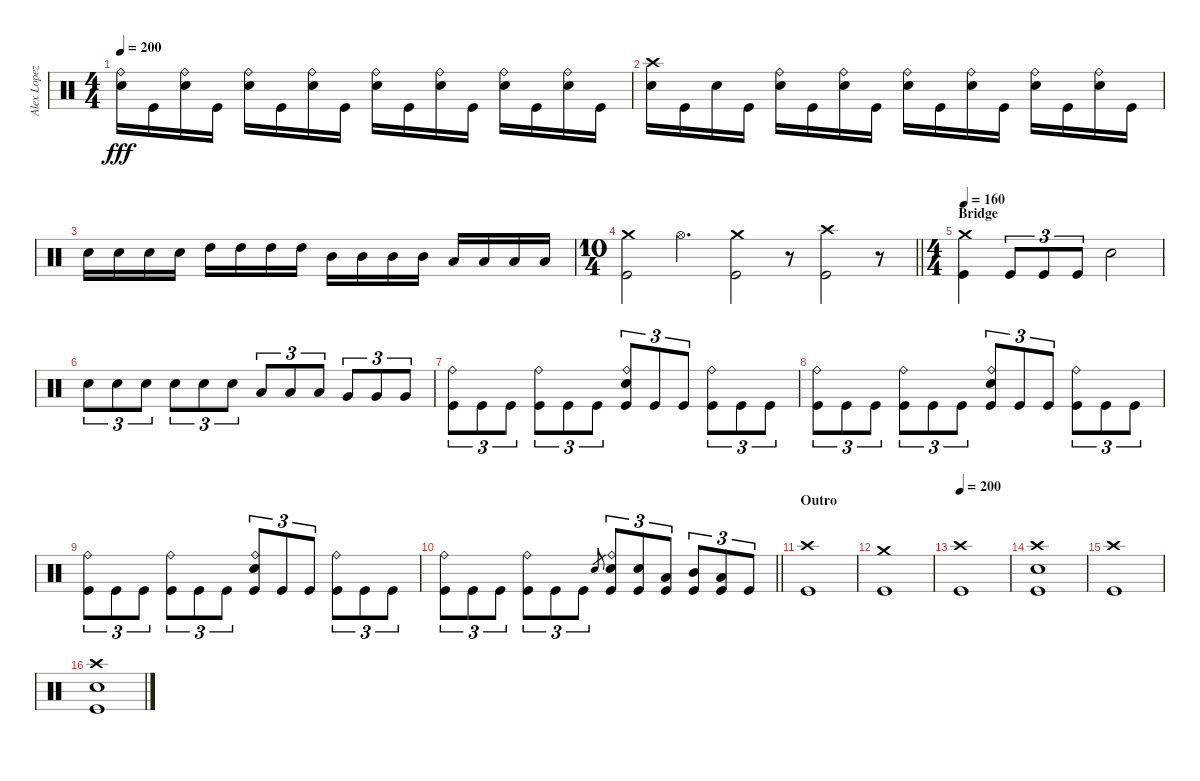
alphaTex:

\track ("Alex Lopez" "Alex Lopez") {instrument percussion}
\staff {score}
\articulation defaults
\ts (4 4)
\tempo 200
\clef neutral
\ks c
("Snare (hit) 2" "Ride (bell)").16{dy fff} "Kick (hit)".16 ("Snare (hit) 2" "Ride (bell)").16 "Kick (hit)".16 ("Snare (hit) 2" "Ride (bell)").16 "Kick (hit)".16 ("Snare (hit) 2" "Ride (bell)").16 "Kick (hit)".16 ("Snare (hit) 2" "Ride (bell)").16 "Kick (hit)".16 ("Snare (hit) 2" "Ride (bell)").16 "Kick (hit)".16 ("Snare (hit) 2" "Ride (bell)").16 "Kick (hit)".16 ("Snare (hit) 2" "Ride (bell)").16 "Kick (hit)".16 |
("Snare (hit) 2" "Crash high (hit)").16 "Kick (hit)".16 "Snare (hit) 2".16 "Kick (hit)".16 ("Snare (hit) 2" "Ride (bell)").16 "Kick (hit)".16 ("Snare (hit) 2" "Ride (bell)").16 "Kick (hit)".16 ("Snare (hit) 2" "Ride (bell)").16 "Kick (hit)".16 ("Snare (hit) 2" "Ride (bell)").16 "Kick (hit)".16 ("Snare (hit) 2" "Ride (bell)").16 "Kick (hit)".16 ("Snare (hit) 2" "Ride (bell)").16 "Kick (hit)".16 |
"Snare (hit) 2".16 "Snare (hit) 2".16 "Snare (hit) 2".16 "Snare (hit) 2".16 "High Tom (hit)".16 "High Tom (hit)".16 "High Tom (hit)".16 "High Tom (hit)".16 "Mid Tom (hit)".16 "Mid Tom (hit)".16 "Mid Tom (hit)".16 "Mid Tom (hit)".16 "Low Tom (hit)".16 "Low Tom (hit)".16 "Low Tom (hit)".16 "Low Tom (hit)".16 |
\ts (10 4)
\barLineRight lightlight
("Crash medium (hit)" "Kick (hit)").2 "Hi-Hat (open)".2{d} ("Crash medium (hit)" "Kick (hit)").2 r.8 ("Crash high (hit)" "Kick (hit)").2 r.8 |
\ts (4 4)
\section ("" "Bridge")
\tempo 160
("Crash medium (hit)" "Kick (hit)").4 "Kick (hit)".8{tu (3 2)} "Kick (hit)".8{tu (3 2)} "Kick (hit)".8{tu (3 2)} "Snare (hit) 2".2 |
"Snare (hit) 2".8{tu (3 2)} "Snare (hit) 2".8{tu (3 2)} "Snare (hit) 2".8{tu (3 2)} "Snare (hit) 2".8{tu (3 2)} "Snare (hit) 2".8{tu (3 2)} "Snare (hit) 2".8{tu (3 2)} "Low Tom (hit)".8{tu (3 2)} "Low Tom (hit)".8{tu (3 2)} "Low Tom (hit)".8{tu (3 2)} "Very Low Tom (hit)".8{tu (3 2)} "Very Low Tom (hit)".8{tu (3 2)} "Very Low Tom (hit)".8{tu (3 2)} |
("Ride (bell)" "Kick (hit)").8{tu (3 2)} "Kick (hit)".8{tu (3 2)} "Kick (hit)".8{tu (3 2)} ("Ride (bell)" "Kick (hit)").8{tu (3 2)} "Kick (hit)".8{tu (3 2)} "Kick (hit)".8{tu (3 2)} ("Ride (bell)" "Snare (hit) 2" "Kick (hit)").8{tu (3 2)} "Kick (hit)".8{tu (3 2)} "Kick (hit)".8{tu (3 2)} ("Ride (bell)" "Kick (hit)").8{tu (3 2)} "Kick (hit)".8{tu (3 2)} "Kick (hit)".8{tu (3 2)} |
("Ride (bell)" "Kick (hit)").8{tu (3 2)} "Kick (hit)".8{tu (3 2)} "Kick (hit)".8{tu (3 2)} ("Ride (bell)" "Kick (hit)").8{tu (3 2)} "Kick (hit)".8{tu (3 2)} "Kick (hit)".8{tu (3 2)} ("Ride (bell)" "Snare (hit) 2" "Kick (hit)").8{tu (3 2)} "Kick (hit)".8{tu (3 2)} "Kick (hit)".8{tu (3 2)} ("Ride (bell)" "Kick (hit)").8{tu (3 2)} "Kick (hit)".8{tu (3 2)} "Kick (hit)".8{tu (3 2)} |
("Ride (bell)" "Kick (hit)").8{tu (3 2)} "Kick (hit)".8{tu (3 2)} "Kick (hit)".8{tu (3 2)} ("Ride (bell)" "Kick (hit)").8{tu (3 2)} "Kick (hit)".8{tu (3 2)} "Kick (hit)".8{tu (3 2)} ("Ride (bell)" "Snare (hit) 2" "Kick (hit)").8{tu (3 2)} "Kick (hit)".8{tu (3 2)} "Kick (hit)".8{tu (3 2)} ("Ride (bell)" "Kick (hit)").8{tu (3 2)} "Kick (hit)".8{tu (3 2)} "Kick (hit)".8{tu (3 2)} |
\barLineRight lightlight
("Ride (bell)" "Kick (hit)").8{tu (3 2)} "Kick (hit)".8{tu (3 2)} "Kick (hit)".8{tu (3 2)} ("Ride (bell)" "Kick (hit)").8{tu (3 2)} "Kick (hit)".8{tu (3 2)} "Kick (hit)".8{tu (3 2)} "Snare (hit)".8{gr} ("Ride (bell)" "Snare (hit) 2" "Kick (hit)").8{tu (3 2)} ("Snare (hit) 2" "Kick (hit)").8{tu (3 2)} ("Low Tom (hit)" "Kick (hit)").8{tu (3 2)} ("Mid Tom (hit)" "Kick (hit)").8{tu (3 2)} ("Low Tom (hit)" "Kick (hit)").8{tu (3 2)} "Kick (hit)".8{tu (3 2)} |
\section ("" "Outro")
("Kick (hit)" "Crash high (hit)").1 |
("Crash medium (hit)" "Kick (hit)").1 |
\tempo 200
("Crash high (hit)" "Kick (hit)").1 |
("Crash high (hit)" "Snare (hit) 2" "Kick (hit)").1 |
("Crash high (hit)" "Kick (hit)").1 |
("Crash high (hit)" "Snare (hit) 2" "Kick (hit)").1
